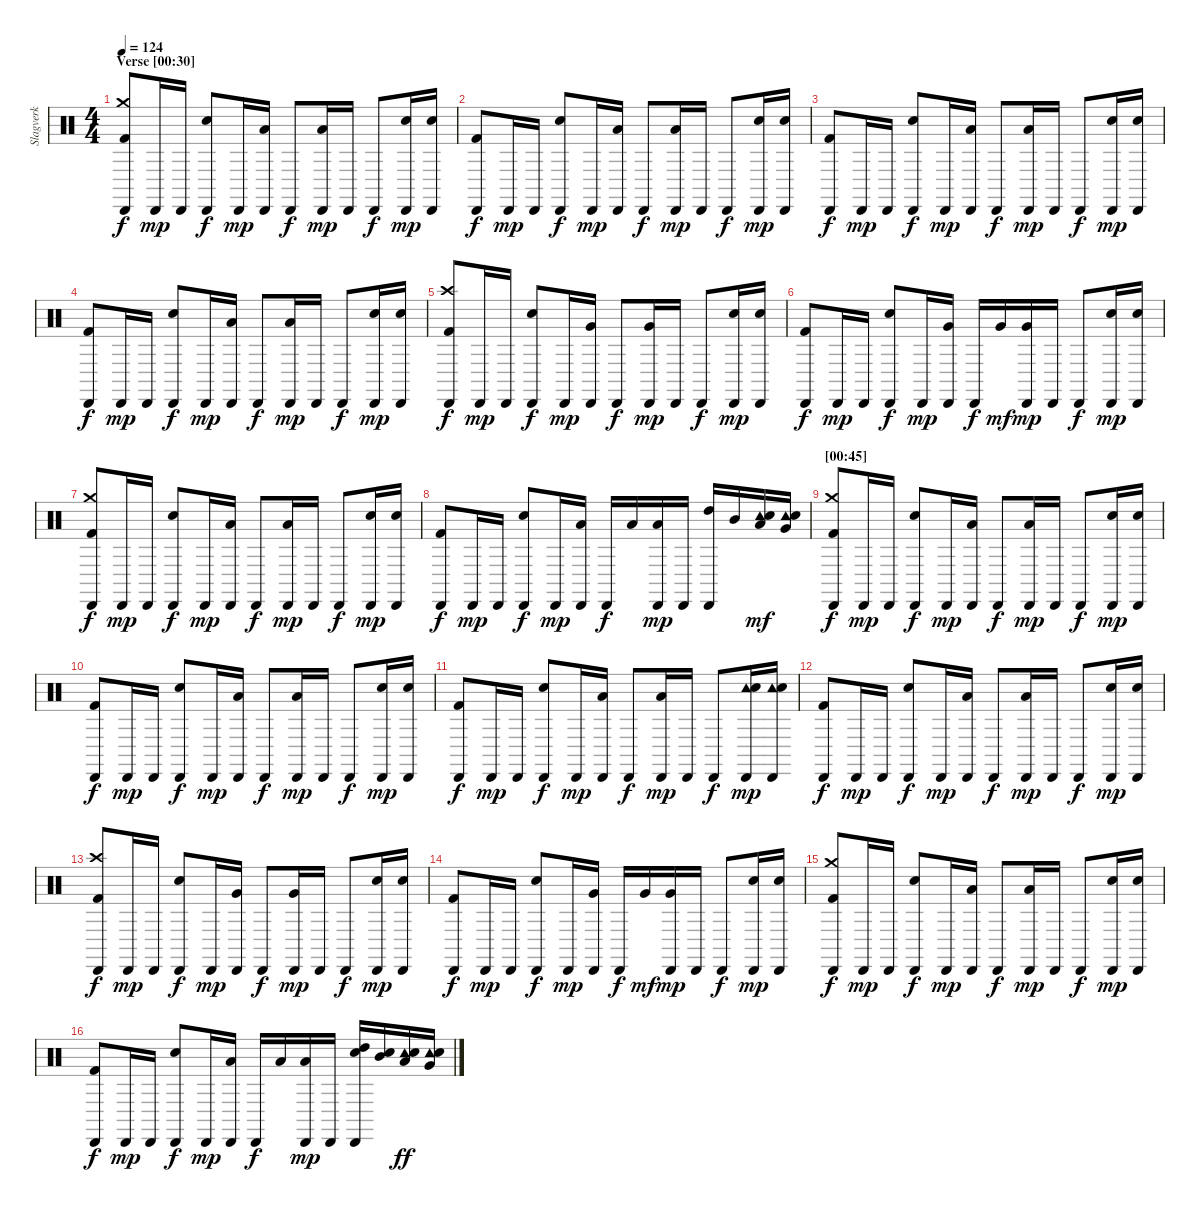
\track ("Slagverk" "Slagverk") {instrument percussion}
\staff {score}
\articulation defaults
\ts (4 4)
\section ("" "Verse [00:30]")
\tempo 124
\clef neutral
\ks c
("Cabasa (hit)" "Crash medium (hit)" "Kick (hit) 2").8{dy f} "Cabasa (hit)".16{dy mp} "Cabasa (hit)".16 ("Cabasa (hit)" "Electric Snare (hit)").8{dy f} "Cabasa (hit)".16{dy mp} ("Cabasa (hit)" "Low Floor Tom (hit)").16 "Cabasa (hit)".8{dy f} ("Cabasa (hit)" "Low Floor Tom (hit)").16{dy mp} "Cabasa (hit)".16 "Cabasa (hit)".8{dy f} ("Cabasa (hit)" "Electric Snare (hit)").16{dy mp} ("Cabasa (hit)" "Electric Snare (hit)").16 |
("Cabasa (hit)" "Kick (hit) 2").8{dy f} "Cabasa (hit)".16{dy mp} "Cabasa (hit)".16 ("Cabasa (hit)" "Electric Snare (hit)").8{dy f} "Cabasa (hit)".16{dy mp} ("Cabasa (hit)" "Low Floor Tom (hit)").16 "Cabasa (hit)".8{dy f} ("Cabasa (hit)" "Low Floor Tom (hit)").16{dy mp} "Cabasa (hit)".16 "Cabasa (hit)".8{dy f} ("Cabasa (hit)" "Electric Snare (hit)").16{dy mp} ("Cabasa (hit)" "Electric Snare (hit)").16 |
("Cabasa (hit)" "Kick (hit) 2").8{dy f} "Cabasa (hit)".16{dy mp} "Cabasa (hit)".16 ("Cabasa (hit)" "Electric Snare (hit)").8{dy f} "Cabasa (hit)".16{dy mp} ("Cabasa (hit)" "Low Floor Tom (hit)").16 "Cabasa (hit)".8{dy f} ("Cabasa (hit)" "Low Floor Tom (hit)").16{dy mp} "Cabasa (hit)".16 "Cabasa (hit)".8{dy f} ("Cabasa (hit)" "Electric Snare (hit)").16{dy mp} ("Cabasa (hit)" "Electric Snare (hit)").16 |
("Cabasa (hit)" "Kick (hit) 2").8{dy f} "Cabasa (hit)".16{dy mp} "Cabasa (hit)".16 ("Cabasa (hit)" "Electric Snare (hit)").8{dy f} "Cabasa (hit)".16{dy mp} ("Cabasa (hit)" "Low Floor Tom (hit)").16 "Cabasa (hit)".8{dy f} ("Cabasa (hit)" "Low Floor Tom (hit)").16{dy mp} "Cabasa (hit)".16 "Cabasa (hit)".8{dy f} ("Cabasa (hit)" "Electric Snare (hit)").16{dy mp} ("Cabasa (hit)" "Electric Snare (hit)").16 |
("Cabasa (hit)" "Crash high (hit)" "Kick (hit) 2").8{dy f} "Cabasa (hit)".16{dy mp} "Cabasa (hit)".16 ("Cabasa (hit)" "Electric Snare (hit)").8{dy f} "Cabasa (hit)".16{dy mp} ("Cabasa (hit)" "Very Low Tom (hit)").16 "Cabasa (hit)".8{dy f} ("Cabasa (hit)" "Very Low Tom (hit)").16{dy mp} "Cabasa (hit)".16 "Cabasa (hit)".8{dy f} ("Cabasa (hit)" "Electric Snare (hit)").16{dy mp} ("Cabasa (hit)" "Electric Snare (hit)").16 |
("Cabasa (hit)" "Kick (hit) 2").8{dy f} "Cabasa (hit)".16{dy mp} "Cabasa (hit)".16 ("Cabasa (hit)" "Electric Snare (hit)").8{dy f} "Cabasa (hit)".16{dy mp} ("Cabasa (hit)" "Very Low Tom (hit)").16 "Cabasa (hit)".16{dy f} "Very Low Tom (hit)".16{dy mf} ("Cabasa (hit)" "Very Low Tom (hit)").16{dy mp} "Cabasa (hit)".16 "Cabasa (hit)".8{dy f} ("Cabasa (hit)" "Electric Snare (hit)").16{dy mp} ("Cabasa (hit)" "Electric Snare (hit)").16 |
("Cabasa (hit)" "Crash medium (hit)" "Kick (hit) 2").8{dy f} "Cabasa (hit)".16{dy mp} "Cabasa (hit)".16 ("Cabasa (hit)" "Electric Snare (hit)").8{dy f} "Cabasa (hit)".16{dy mp} ("Cabasa (hit)" "Low Tom (hit)").16 "Cabasa (hit)".8{dy f} ("Cabasa (hit)" "Low Tom (hit)").16{dy mp} "Cabasa (hit)".16 "Cabasa (hit)".8{dy f} ("Cabasa (hit)" "Electric Snare (hit)").16{dy mp} ("Cabasa (hit)" "Electric Snare (hit)").16 |
("Cabasa (hit)" "Kick (hit) 2").8{dy f} "Cabasa (hit)".16{dy mp} "Cabasa (hit)".16 ("Cabasa (hit)" "Electric Snare (hit)").8{dy f} "Cabasa (hit)".16{dy mp} ("Cabasa (hit)" "Low Tom (hit)").16 "Cabasa (hit)".16{dy f} "Low Tom (hit)".16 ("Cabasa (hit)" "Low Tom (hit)").16{dy mp} "Cabasa (hit)".16 ("Cabasa (hit)" "High Tom (hit)").16 "Mid Tom (hit)".16 ("Tambourine (hit)" "Low Tom (hit)" "Electric Snare (hit)").16{dy mf} ("Tambourine (hit)" "Very Low Tom (hit)" "Electric Snare (hit)").16 |
\section ("" "[00:45]")
("Cabasa (hit)" "Crash medium (hit)" "Kick (hit) 2").8{dy f} "Cabasa (hit)".16{dy mp} "Cabasa (hit)".16 ("Cabasa (hit)" "Electric Snare (hit)").8{dy f} "Cabasa (hit)".16{dy mp} ("Cabasa (hit)" "Low Floor Tom (hit)").16 "Cabasa (hit)".8{dy f} ("Cabasa (hit)" "Low Floor Tom (hit)").16{dy mp} "Cabasa (hit)".16 "Cabasa (hit)".8{dy f} ("Cabasa (hit)" "Electric Snare (hit)").16{dy mp} ("Cabasa (hit)" "Electric Snare (hit)").16 |
("Cabasa (hit)" "Kick (hit) 2").8{dy f} "Cabasa (hit)".16{dy mp} "Cabasa (hit)".16 ("Cabasa (hit)" "Electric Snare (hit)").8{dy f} "Cabasa (hit)".16{dy mp} ("Cabasa (hit)" "Low Floor Tom (hit)").16 "Cabasa (hit)".8{dy f} ("Cabasa (hit)" "Low Floor Tom (hit)").16{dy mp} "Cabasa (hit)".16 "Cabasa (hit)".8{dy f} ("Cabasa (hit)" "Electric Snare (hit)").16{dy mp} ("Cabasa (hit)" "Electric Snare (hit)").16 |
("Cabasa (hit)" "Kick (hit) 2").8{dy f} "Cabasa (hit)".16{dy mp} "Cabasa (hit)".16 ("Cabasa (hit)" "Electric Snare (hit)").8{dy f} "Cabasa (hit)".16{dy mp} ("Cabasa (hit)" "Low Floor Tom (hit)").16 "Cabasa (hit)".8{dy f} ("Cabasa (hit)" "Low Floor Tom (hit)").16{dy mp} "Cabasa (hit)".16 "Cabasa (hit)".8{dy f} ("Cabasa (hit)" "Tambourine (hit)" "Electric Snare (hit)").16{dy mp} ("Cabasa (hit)" "Tambourine (hit)" "Electric Snare (hit)").16 |
("Cabasa (hit)" "Kick (hit) 2").8{dy f} "Cabasa (hit)".16{dy mp} "Cabasa (hit)".16 ("Cabasa (hit)" "Electric Snare (hit)").8{dy f} "Cabasa (hit)".16{dy mp} ("Cabasa (hit)" "Low Floor Tom (hit)").16 "Cabasa (hit)".8{dy f} ("Cabasa (hit)" "Low Floor Tom (hit)").16{dy mp} "Cabasa (hit)".16 "Cabasa (hit)".8{dy f} ("Cabasa (hit)" "Electric Snare (hit)").16{dy mp} ("Cabasa (hit)" "Electric Snare (hit)").16 |
("Cabasa (hit)" "Crash high (hit)" "Kick (hit) 2").8{dy f} "Cabasa (hit)".16{dy mp} "Cabasa (hit)".16 ("Cabasa (hit)" "Electric Snare (hit)").8{dy f} "Cabasa (hit)".16{dy mp} ("Cabasa (hit)" "Very Low Tom (hit)").16 "Cabasa (hit)".8{dy f} ("Cabasa (hit)" "Very Low Tom (hit)").16{dy mp} "Cabasa (hit)".16 "Cabasa (hit)".8{dy f} ("Cabasa (hit)" "Electric Snare (hit)").16{dy mp} ("Cabasa (hit)" "Electric Snare (hit)").16 |
("Cabasa (hit)" "Kick (hit) 2").8{dy f} "Cabasa (hit)".16{dy mp} "Cabasa (hit)".16 ("Cabasa (hit)" "Electric Snare (hit)").8{dy f} "Cabasa (hit)".16{dy mp} ("Cabasa (hit)" "Very Low Tom (hit)").16 "Cabasa (hit)".16{dy f} "Very Low Tom (hit)".16{dy mf} ("Cabasa (hit)" "Very Low Tom (hit)").16{dy mp} "Cabasa (hit)".16 "Cabasa (hit)".8{dy f} ("Cabasa (hit)" "Electric Snare (hit)").16{dy mp} ("Cabasa (hit)" "Electric Snare (hit)").16 |
("Cabasa (hit)" "Crash medium (hit)" "Kick (hit) 2").8{dy f} "Cabasa (hit)".16{dy mp} "Cabasa (hit)".16 ("Cabasa (hit)" "Electric Snare (hit)").8{dy f} "Cabasa (hit)".16{dy mp} ("Cabasa (hit)" "Low Tom (hit)").16 "Cabasa (hit)".8{dy f} ("Cabasa (hit)" "Low Tom (hit)").16{dy mp} "Cabasa (hit)".16 "Cabasa (hit)".8{dy f} ("Cabasa (hit)" "Electric Snare (hit)").16{dy mp} ("Cabasa (hit)" "Electric Snare (hit)").16 |
("Cabasa (hit)" "Kick (hit) 2").8{dy f} "Cabasa (hit)".16{dy mp} "Cabasa (hit)".16 ("Cabasa (hit)" "Electric Snare (hit)").8{dy f} "Cabasa (hit)".16{dy mp} ("Cabasa (hit)" "Low Tom (hit)").16 "Cabasa (hit)".16{dy f} "Low Tom (hit)".16 ("Cabasa (hit)" "Low Tom (hit)").16{dy mp} "Cabasa (hit)".16 ("Cabasa (hit)" "High Tom (hit)" "Electric Snare (hit)").16 ("Mid Tom (hit)" "Electric Snare (hit)").16 ("Tambourine (hit)" "Low Tom (hit)" "Electric Snare (hit)").16{dy ff} ("Tambourine (hit)" "Very Low Tom (hit)" "Electric Snare (hit)").16
